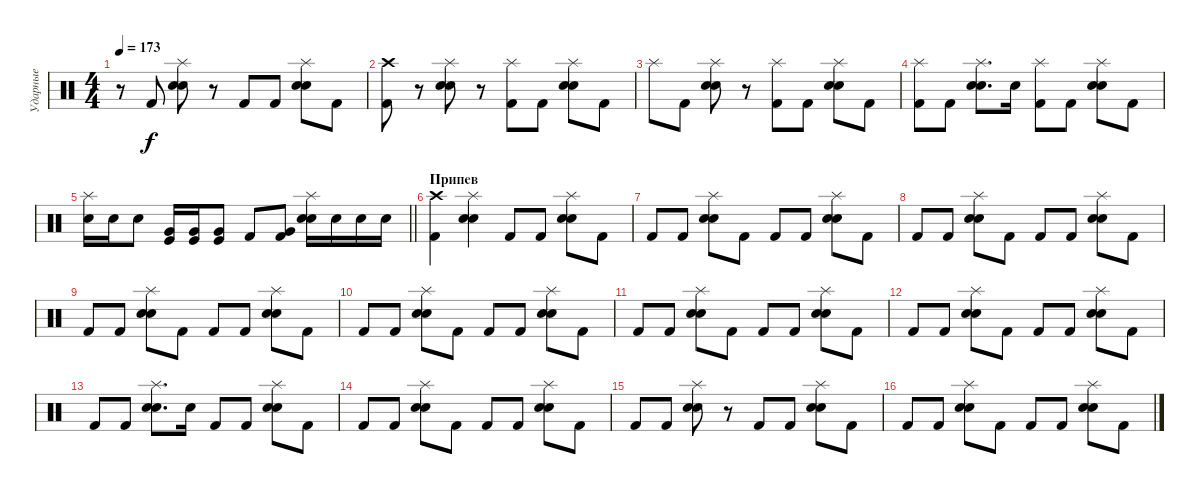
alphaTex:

\track ("Ударные" "Ударные") {instrument percussion}
\staff {score}
\articulation defaults
\ts (4 4)
\tempo 173
\clef neutral
\ks c
r.8{dy f} "Kick (hit) 2".8 ("Splash (hit)" "Electric Snare (hit)" "Snare (hit) 2").8 r.8 "Kick (hit) 2".8 "Kick (hit) 2".8 ("Splash (hit)" "Electric Snare (hit)" "Snare (hit) 2").8 "Kick (hit) 2".8 |
("Crash high (hit)" "Kick (hit) 2").8 r.8 ("Splash (hit)" "Electric Snare (hit)" "Snare (hit) 2").8 r.8 ("Splash (hit)" "Kick (hit) 2").8 "Kick (hit) 2".8 ("Splash (hit)" "Electric Snare (hit)" "Snare (hit) 2").8 "Kick (hit) 2".8 |
"Splash (hit)".8 "Kick (hit) 2".8 ("Splash (hit)" "Electric Snare (hit)" "Snare (hit) 2").8 r.8 ("Splash (hit)" "Kick (hit) 2").8 "Kick (hit) 2".8 ("Splash (hit)" "Electric Snare (hit)" "Snare (hit) 2").8 "Kick (hit) 2".8 |
("Splash (hit)" "Kick (hit) 2").8 "Kick (hit) 2".8 ("Splash (hit)" "Electric Snare (hit)" "Snare (hit) 2").8{d} "Electric Snare (hit)".16 ("Splash (hit)" "Kick (hit) 2").8 "Kick (hit) 2".8 ("Splash (hit)" "Electric Snare (hit)" "Snare (hit) 2").8 "Kick (hit) 2".8 |
\barLineRight lightlight
("Splash (hit)" "Electric Snare (hit)").16 "Electric Snare (hit)".16 "Electric Snare (hit)".8 ("Very Low Tom (hit)" "Kick (hit)").16 ("Very Low Tom (hit)" "Kick (hit)").16 ("Very Low Tom (hit)" "Kick (hit)").8 "Kick (hit) 2".8 ("Very Low Tom (hit)" "Kick (hit) 2").8 ("Splash (hit)" "Electric Snare (hit)" "Snare (hit) 2").16 "Electric Snare (hit)".16 "Electric Snare (hit)".16 "Electric Snare (hit)".16 |
\section ("" "Припев")
("Crash high (hit)" "Kick (hit) 2").4 ("Splash (hit)" "Electric Snare (hit)" "Snare (hit) 2").4 "Kick (hit) 2".8 "Kick (hit) 2".8 ("Splash (hit)" "Electric Snare (hit)" "Snare (hit) 2").8 "Kick (hit) 2".8 |
"Kick (hit) 2".8 "Kick (hit) 2".8 ("Splash (hit)" "Electric Snare (hit)" "Snare (hit) 2").8 "Kick (hit) 2".8 "Kick (hit) 2".8 "Kick (hit) 2".8 ("Splash (hit)" "Electric Snare (hit)" "Snare (hit) 2").8 "Kick (hit) 2".8 |
"Kick (hit) 2".8 "Kick (hit) 2".8 ("Splash (hit)" "Electric Snare (hit)" "Snare (hit) 2").8 "Kick (hit) 2".8 "Kick (hit) 2".8 "Kick (hit) 2".8 ("Splash (hit)" "Electric Snare (hit)" "Snare (hit) 2").8 "Kick (hit) 2".8 |
"Kick (hit) 2".8 "Kick (hit) 2".8 ("Splash (hit)" "Electric Snare (hit)" "Snare (hit) 2").8 "Kick (hit) 2".8 "Kick (hit) 2".8 "Kick (hit) 2".8 ("Splash (hit)" "Electric Snare (hit)" "Snare (hit) 2").8 "Kick (hit) 2".8 |
"Kick (hit) 2".8 "Kick (hit) 2".8 ("Splash (hit)" "Electric Snare (hit)" "Snare (hit) 2").8 "Kick (hit) 2".8 "Kick (hit) 2".8 "Kick (hit) 2".8 ("Splash (hit)" "Electric Snare (hit)" "Snare (hit) 2").8 "Kick (hit) 2".8 |
"Kick (hit) 2".8 "Kick (hit) 2".8 ("Splash (hit)" "Electric Snare (hit)" "Snare (hit) 2").8 "Kick (hit) 2".8 "Kick (hit) 2".8 "Kick (hit) 2".8 ("Splash (hit)" "Electric Snare (hit)" "Snare (hit) 2").8 "Kick (hit) 2".8 |
"Kick (hit) 2".8 "Kick (hit) 2".8 ("Splash (hit)" "Electric Snare (hit)" "Snare (hit) 2").8 "Kick (hit) 2".8 "Kick (hit) 2".8 "Kick (hit) 2".8 ("Splash (hit)" "Electric Snare (hit)" "Snare (hit) 2").8 "Kick (hit) 2".8 |
"Kick (hit) 2".8 "Kick (hit) 2".8 ("Splash (hit)" "Electric Snare (hit)" "Snare (hit) 2").8{d} "Electric Snare (hit)".16 "Kick (hit) 2".8 "Kick (hit) 2".8 ("Splash (hit)" "Electric Snare (hit)" "Snare (hit) 2").8 "Kick (hit) 2".8 |
"Kick (hit) 2".8 "Kick (hit) 2".8 ("Splash (hit)" "Electric Snare (hit)" "Snare (hit) 2").8 "Kick (hit) 2".8 "Kick (hit) 2".8 "Kick (hit) 2".8 ("Splash (hit)" "Electric Snare (hit)" "Snare (hit) 2").8 "Kick (hit) 2".8 |
"Kick (hit) 2".8 "Kick (hit) 2".8 ("Splash (hit)" "Electric Snare (hit)" "Snare (hit) 2").8 r.8 "Kick (hit) 2".8 "Kick (hit) 2".8 ("Splash (hit)" "Electric Snare (hit)" "Snare (hit) 2").8 "Kick (hit) 2".8 |
"Kick (hit) 2".8 "Kick (hit) 2".8 ("Splash (hit)" "Electric Snare (hit)" "Snare (hit) 2").8 "Kick (hit) 2".8 "Kick (hit) 2".8 "Kick (hit) 2".8 ("Splash (hit)" "Electric Snare (hit)" "Snare (hit) 2").8 "Kick (hit) 2".8
